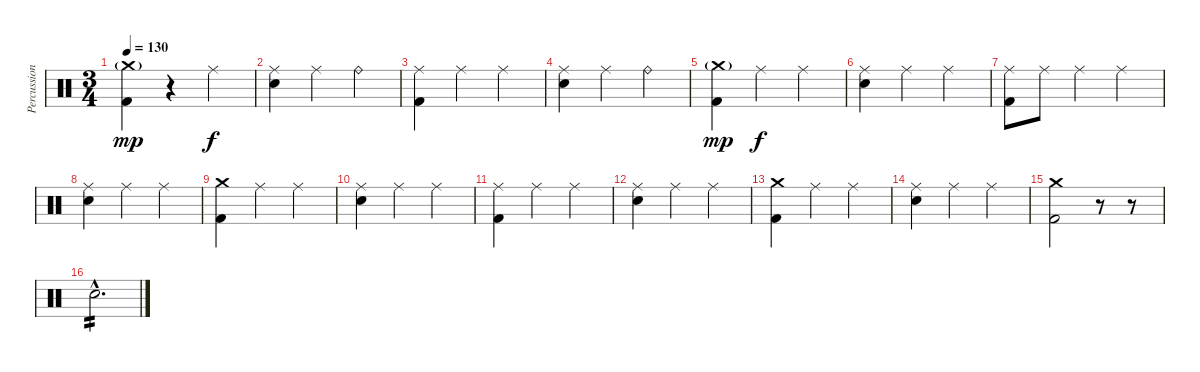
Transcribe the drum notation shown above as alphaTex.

\track ("Percussion" "Percussion") {instrument percussion}
\staff {score}
\articulation defaults
\ts (3 4)
\tempo 130
\clef neutral
\ks c
("Crash medium (hit)"{g} "Kick (hit) 2").4{dy mp volume 9} r.4 "Ride (middle)".4{dy f} |
("Ride (middle)" "Electric Snare (hit)").4 "Ride (middle)".4 "Ride (bell)".4 |
("Ride (middle)" "Kick (hit) 2").4 "Ride (middle)".4 "Ride (middle)".4 |
("Ride (middle)" "Electric Snare (hit)").4 "Ride (middle)".4 "Ride (bell)".4 |
("Crash medium (hit)"{g} "Kick (hit) 2").4{dy mp} "Ride (middle)".4{dy f} "Ride (middle)".4 |
("Ride (middle)" "Electric Snare (hit)").4 "Ride (middle)".4 "Ride (middle)".4 |
("Ride (middle)" "Kick (hit) 2").8 "Ride (middle)".8 "Ride (middle)".4 "Ride (middle)".4 |
("Ride (middle)" "Electric Snare (hit)").4 "Ride (middle)".4 "Ride (middle)".4 |
("Crash medium (hit)" "Kick (hit) 2").4 "Ride (middle)".4 "Ride (middle)".4 |
("Ride (middle)" "Electric Snare (hit)").4 "Ride (middle)".4 "Ride (middle)".4 |
("Ride (middle)" "Kick (hit) 2").4 "Ride (middle)".4 "Ride (middle)".4 |
("Ride (middle)" "Electric Snare (hit)").4 "Ride (middle)".4 "Ride (middle)".4 |
("Crash medium (hit)" "Kick (hit) 2").4 "Ride (middle)".4 "Ride (middle)".4 |
("Ride (middle)" "Electric Snare (hit)").4 "Ride (middle)".4 "Ride (middle)".4 |
("Crash medium (hit)" "Kick (hit) 2").2 r.8{volume 0} r.8{volume 9} |
"Electric Snare (hit)"{hac}.2{d tp 2}
